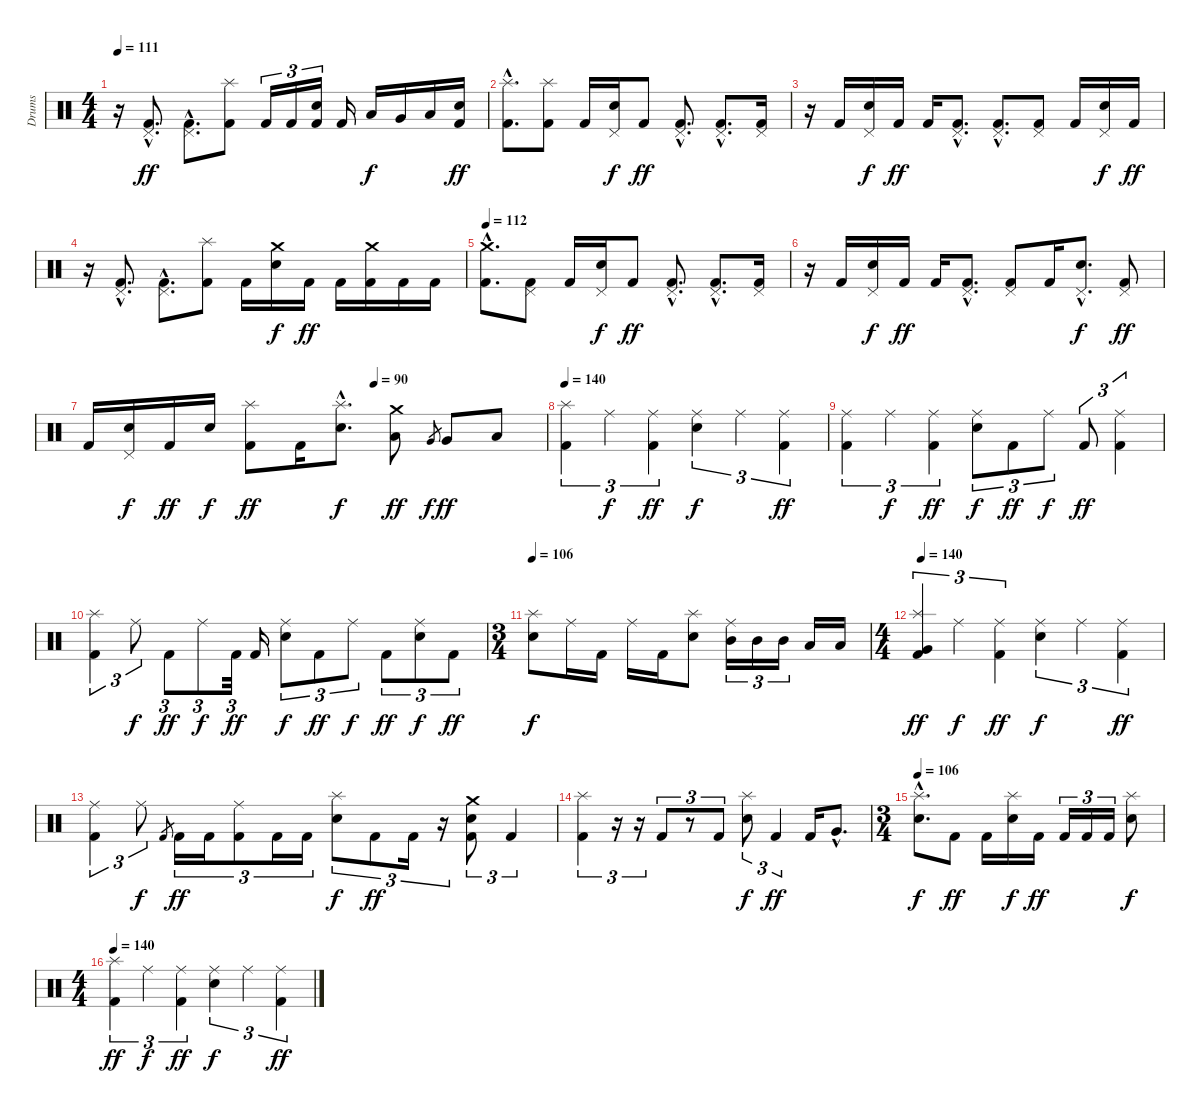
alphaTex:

\track ("Drums" "Drums") {instrument percussion}
\staff {score}
\articulation defaults
\ts (4 4)
\tempo 111
\clef neutral
\ks c
r.16{dy ff} ("Pedal Hi-Hat (hit)"{hac} "Kick (hit) 2"{hac}).8{d} ("Pedal Hi-Hat (hit)"{hac} "Kick (hit) 2"{hac}).8{d} ("Splash (hit)" "Kick (hit) 2").8 "Kick (hit) 2".16{tu (3 2)} "Kick (hit) 2".16{tu (3 2)} ("Electric Snare (hit)" "Kick (hit) 2").16{tu (3 2)} "Kick (hit) 2".16 "Low Tom (hit)".16{dy f} "Very Low Tom (hit)".16 "Low Floor Tom (hit)".16 ("Electric Snare (hit)" "Kick (hit) 2").16{dy ff} |
("Splash (hit)"{hac} "Kick (hit) 2"{hac}).8{d} ("Splash (hit)" "Kick (hit) 2").8 "Kick (hit) 2".16 ("Pedal Hi-Hat (hit)" "Electric Snare (hit)").16{dy f} "Kick (hit) 2".8{dy ff} ("Pedal Hi-Hat (hit)"{hac} "Kick (hit) 2"{hac}).8{d} ("Pedal Hi-Hat (hit)"{hac} "Kick (hit) 2"{hac}).8{d} ("Pedal Hi-Hat (hit)" "Kick (hit) 2").16 |
r.16 "Kick (hit) 2".16 ("Pedal Hi-Hat (hit)" "Electric Snare (hit)").16{dy f} "Kick (hit) 2".16{dy ff} "Kick (hit) 2".16 ("Pedal Hi-Hat (hit)"{hac} "Kick (hit) 2"{hac}).8{d} ("Pedal Hi-Hat (hit)"{hac} "Kick (hit) 2"{hac}).8{d} ("Pedal Hi-Hat (hit)" "Kick (hit) 2").8 "Kick (hit) 2".16 ("Pedal Hi-Hat (hit)" "Electric Snare (hit)").16{dy f} "Kick (hit) 2".16{dy ff} |
r.16 ("Pedal Hi-Hat (hit)"{hac} "Kick (hit) 2"{hac}).8{d} ("Pedal Hi-Hat (hit)"{hac} "Kick (hit) 2"{hac}).8{d} ("Splash (hit)" "Kick (hit) 2").8 "Kick (hit) 2".16 ("Crash medium (hit)" "Electric Snare (hit)").16{dy f} "Kick (hit) 2".16{dy ff} "Kick (hit) 2".16 ("Crash medium (hit)" "Kick (hit) 2").16 "Kick (hit) 2".16 "Kick (hit) 2".16 |
\tempo 112
("Crash medium (hit)"{hac} "Kick (hit) 2"{hac}).8{d} ("Pedal Hi-Hat (hit)" "Kick (hit) 2").8 "Kick (hit) 2".16 ("Pedal Hi-Hat (hit)" "Electric Snare (hit)").16{dy f} "Kick (hit) 2".8{dy ff} ("Pedal Hi-Hat (hit)"{hac} "Kick (hit) 2"{hac}).8{d} ("Pedal Hi-Hat (hit)"{hac} "Kick (hit) 2"{hac}).8{d} ("Pedal Hi-Hat (hit)" "Kick (hit) 2").16 |
r.16 "Kick (hit) 2".16 ("Pedal Hi-Hat (hit)" "Electric Snare (hit)").16{dy f} "Kick (hit) 2".16{dy ff} "Kick (hit) 2".16 ("Pedal Hi-Hat (hit)"{hac} "Kick (hit) 2"{hac}).8{d} ("Pedal Hi-Hat (hit)" "Kick (hit) 2").8 "Kick (hit) 2".16 ("Pedal Hi-Hat (hit)"{hac} "Electric Snare (hit)"{hac}).8{d dy f} ("Pedal Hi-Hat (hit)" "Kick (hit) 2").8{dy ff} |
\tempo (90 0.625)
"Kick (hit) 2".16 ("Pedal Hi-Hat (hit)" "Electric Snare (hit)").16{dy f} "Kick (hit) 2".16{dy ff} "Electric Snare (hit)".16{dy f} ("Splash (hit)" "Kick (hit) 2").8{dy ff} "Kick (hit) 2".16 ("Splash (hit)"{hac} "Electric Snare (hit)"{hac}).8{d dy f} ("Crash medium (hit)" "Low Tom (hit)").8{dy ff} "Very Low Tom (hit)".8{gr dy f} "Very Low Tom (hit)".8{dy ff} "Low Floor Tom (hit)".8 |
\tempo 140
("Splash (hit)" "Kick (hit) 2").4{tu (3 2)} "Ride (middle)".4{tu (3 2) dy f} ("Ride (middle)" "Kick (hit) 2").4{tu (3 2) dy ff} ("Ride (middle)" "Electric Snare (hit)").4{tu (3 2) dy f} "Ride (middle)".4{tu (3 2)} ("Ride (middle)" "Kick (hit) 2").4{tu (3 2) dy ff} |
("Ride (middle)" "Kick (hit) 2").4{tu (3 2)} "Ride (middle)".4{tu (3 2) dy f} ("Ride (middle)" "Kick (hit) 2").4{tu (3 2) dy ff} ("Ride (middle)" "Electric Snare (hit)").8{tu (3 2) dy f} "Kick (hit) 2".8{tu (3 2) dy ff} "Ride (middle)".8{tu (3 2) dy f} "Kick (hit) 2".8{tu (3 2) dy ff} ("Ride (middle)" "Kick (hit) 2").4{tu (3 2)} |
("Splash (hit)" "Kick (hit) 2").4{tu (3 2)} "Ride (middle)".8{tu (3 2) dy f} "Kick (hit) 2".8{tu (3 2) dy ff} "Ride (middle)".8{tu (3 2) dy f} "Kick (hit) 2".32{tu (3 2) dy ff} "Kick (hit) 2".16 ("Ride (middle)" "Electric Snare (hit)").8{tu (3 2) dy f} "Kick (hit) 2".8{tu (3 2) dy ff} "Ride (middle)".8{tu (3 2) dy f} "Kick (hit) 2".8{tu (3 2) dy ff} ("Ride (middle)" "Electric Snare (hit)").8{tu (3 2) dy f} "Kick (hit) 2".8{tu (3 2) dy ff} |
\ts (3 4)
\tempo 106
("Splash (hit)" "Electric Snare (hit)").8{dy f} "Ride (middle)".16 "Kick (hit) 2".16 "Ride (middle)".16 "Kick (hit) 2".16 ("Splash (hit)" "Electric Snare (hit)").8 ("Ride (middle)" "Mid Tom (hit)").16{tu (3 2)} "Mid Tom (hit)".16{tu (3 2)} "Mid Tom (hit)".16{tu (3 2)} "Low Tom (hit)".16 "Low Tom (hit)".16 |
\ts (4 4)
\tempo 140
("Splash (hit)" "Very Low Tom (hit)" "Kick (hit) 2").4{tu (3 2) dy ff} "Ride (middle)".4{tu (3 2) dy f} ("Ride (middle)" "Kick (hit) 2").4{tu (3 2) dy ff} ("Ride (middle)" "Electric Snare (hit)").4{tu (3 2) dy f} "Ride (middle)".4{tu (3 2)} ("Ride (middle)" "Kick (hit) 2").4{tu (3 2) dy ff} |
("Ride (middle)" "Kick (hit) 2").4{tu (3 2)} "Ride (middle)".8{tu (3 2) dy f} "Kick (hit) 2".8{gr} "Kick (hit) 2".16{tu (3 2) dy ff} "Kick (hit) 2".16{tu (3 2)} ("Ride (middle)" "Kick (hit) 2").8{tu (3 2)} "Kick (hit) 2".16{tu (3 2)} "Kick (hit) 2".16{tu (3 2)} ("Splash (hit)" "Electric Snare (hit)").8{tu (3 2) dy f} "Kick (hit) 2".8{tu (3 2) dy ff} "Kick (hit) 2".16{tu (3 2)} r.16{tu (3 2)} ("Crash medium (hit)" "Electric Snare (hit)" "Kick (hit) 2").8{tu (3 2)} "Kick (hit) 2".4{tu (3 2)} |
("Splash (hit)" "Kick (hit) 2").4{tu (3 2)} r.16{tu (3 2)} r.16{tu (3 2)} "Kick (hit) 2".8{tu (3 2)} r.8{tu (3 2)} "Kick (hit) 2".8{tu (3 2)} ("Splash (hit)" "Electric Snare (hit)").8{tu (3 2) dy f} "Kick (hit) 2".4{tu (3 2) dy ff} "Kick (hit) 2".16 "Very Low Tom (hit)"{hac}.8{d} |
\ts (3 4)
\tempo 106
("Splash (hit)"{hac} "Electric Snare (hit)"{hac}).8{d dy f} "Kick (hit) 2".8{dy ff} "Kick (hit) 2".16 ("Splash (hit)" "Electric Snare (hit)").16{dy f} "Kick (hit) 2".16{dy ff} "Kick (hit) 2".16{tu (3 2)} "Kick (hit) 2".16{tu (3 2)} "Kick (hit) 2".16{tu (3 2)} ("Splash (hit)" "Electric Snare (hit)").8{dy f} |
\ts (4 4)
\tempo 140
("Splash (hit)" "Kick (hit) 2").4{tu (3 2) dy ff} "Ride (middle)".4{tu (3 2) dy f} ("Ride (middle)" "Kick (hit) 2").4{tu (3 2) dy ff} ("Ride (middle)" "Electric Snare (hit)").4{tu (3 2) dy f} "Ride (middle)".4{tu (3 2)} ("Ride (middle)" "Kick (hit) 2").4{tu (3 2) dy ff}
